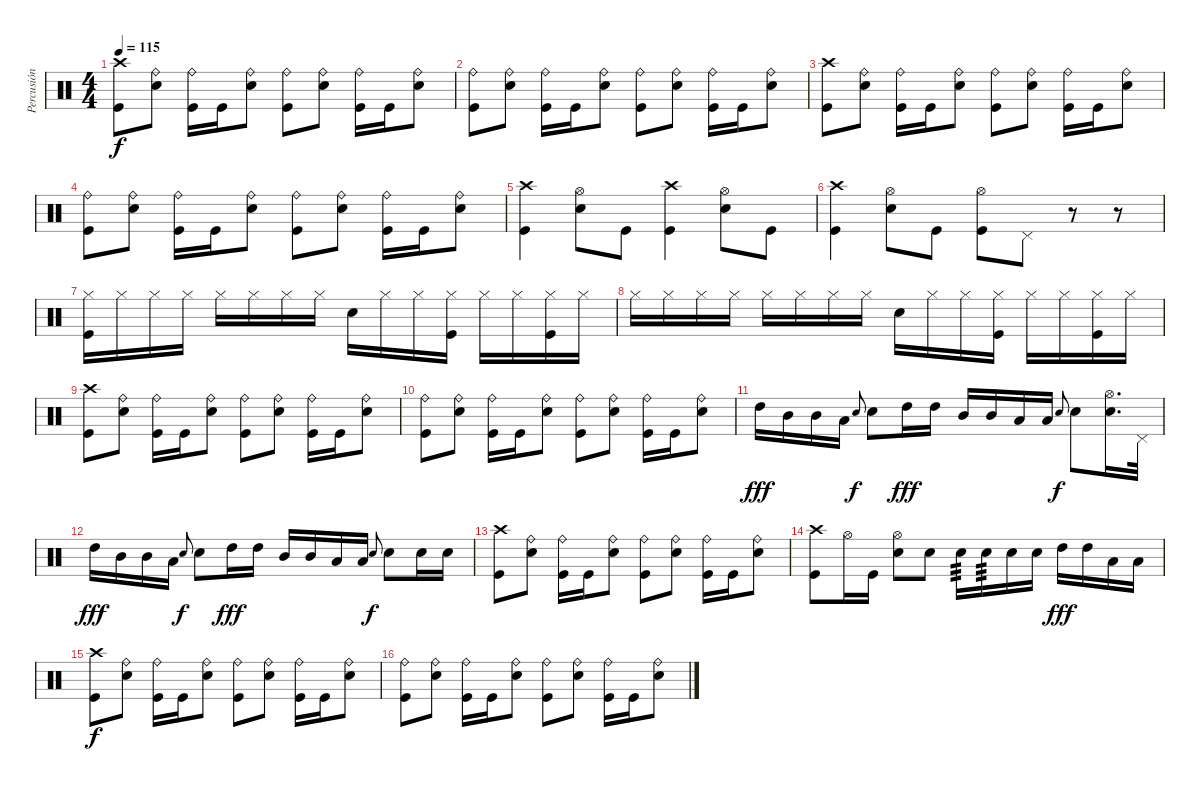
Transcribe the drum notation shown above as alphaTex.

\track ("Percusión" "Percusión") {instrument percussion}
\staff {score}
\articulation defaults
\ts (4 4)
\tempo 115
\clef neutral
\ks c
("Crash high (hit)" "Kick (hit)").8{dy f} ("Electric Snare (hit)" "Ride (bell)").8 ("Ride (bell)" "Kick (hit)").16 "Kick (hit)".16 ("Electric Snare (hit)" "Ride (bell)").8 ("Ride (bell)" "Kick (hit)").8 ("Electric Snare (hit)" "Ride (bell)").8 ("Ride (bell)" "Kick (hit)").16 "Kick (hit)".16 ("Electric Snare (hit)" "Ride (bell)").8 |
("Ride (bell)" "Kick (hit)").8 ("Electric Snare (hit)" "Ride (bell)").8 ("Ride (bell)" "Kick (hit)").16 "Kick (hit)".16 ("Electric Snare (hit)" "Ride (bell)").8 ("Ride (bell)" "Kick (hit)").8 ("Electric Snare (hit)" "Ride (bell)").8 ("Ride (bell)" "Kick (hit)").16 "Kick (hit)".16 ("Electric Snare (hit)" "Ride (bell)").8 |
("Crash high (hit)" "Kick (hit)").8 ("Electric Snare (hit)" "Ride (bell)").8 ("Ride (bell)" "Kick (hit)").16 "Kick (hit)".16 ("Electric Snare (hit)" "Ride (bell)").8 ("Ride (bell)" "Kick (hit)").8 ("Electric Snare (hit)" "Ride (bell)").8 ("Ride (bell)" "Kick (hit)").16 "Kick (hit)".16 ("Electric Snare (hit)" "Ride (bell)").8 |
("Ride (bell)" "Kick (hit)").8 ("Electric Snare (hit)" "Ride (bell)").8 ("Ride (bell)" "Kick (hit)").16 "Kick (hit)".16 ("Electric Snare (hit)" "Ride (bell)").8 ("Ride (bell)" "Kick (hit)").8 ("Electric Snare (hit)" "Ride (bell)").8 ("Ride (bell)" "Kick (hit)").16 "Kick (hit)".16 ("Electric Snare (hit)" "Ride (bell)").8 |
("Crash high (hit)" "Kick (hit)").4 ("Electric Snare (hit)" "Hi-Hat (open)").8 "Kick (hit)".8 ("Crash high (hit)" "Kick (hit)").4 ("Electric Snare (hit)" "Hi-Hat (open)").8 "Kick (hit)".8 |
("Crash high (hit)" "Kick (hit)").4 ("Electric Snare (hit)" "Hi-Hat (open)").8 "Kick (hit)".8 ("Hi-Hat (open)" "Kick (hit)").8 "Pedal Hi-Hat (hit)".8 r.8 r.8 |
("Hi-Hat (closed)" "Kick (hit)").16 "Hi-Hat (closed)".16 "Hi-Hat (closed)".16 "Hi-Hat (closed)".16 "Hi-Hat (closed)".16 "Hi-Hat (closed)".16 "Hi-Hat (closed)".16 "Hi-Hat (closed)".16 "Electric Snare (hit)".16 "Hi-Hat (closed)".16 "Hi-Hat (closed)".16 ("Hi-Hat (closed)" "Kick (hit)").16 "Hi-Hat (closed)".16 "Hi-Hat (closed)".16 ("Hi-Hat (closed)" "Kick (hit)").16 "Hi-Hat (closed)".16 |
"Hi-Hat (closed)".16 "Hi-Hat (closed)".16 "Hi-Hat (closed)".16 "Hi-Hat (closed)".16 "Hi-Hat (closed)".16 "Hi-Hat (closed)".16 "Hi-Hat (closed)".16 "Hi-Hat (closed)".16 "Electric Snare (hit)".16 "Hi-Hat (closed)".16 "Hi-Hat (closed)".16 ("Hi-Hat (closed)" "Kick (hit)").16 "Hi-Hat (closed)".16 "Hi-Hat (closed)".16 ("Hi-Hat (closed)" "Kick (hit)").16 "Hi-Hat (closed)".16 |
("Crash high (hit)" "Kick (hit)").8 ("Electric Snare (hit)" "Ride (bell)").8 ("Ride (bell)" "Kick (hit)").16 "Kick (hit)".16 ("Electric Snare (hit)" "Ride (bell)").8 ("Ride (bell)" "Kick (hit)").8 ("Electric Snare (hit)" "Ride (bell)").8 ("Ride (bell)" "Kick (hit)").16 "Kick (hit)".16 ("Electric Snare (hit)" "Ride (bell)").8 |
("Ride (bell)" "Kick (hit)").8 ("Electric Snare (hit)" "Ride (bell)").8 ("Ride (bell)" "Kick (hit)").16 "Kick (hit)".16 ("Electric Snare (hit)" "Ride (bell)").8 ("Ride (bell)" "Kick (hit)").8 ("Electric Snare (hit)" "Ride (bell)").8 ("Ride (bell)" "Kick (hit)").16 "Kick (hit)".16 ("Electric Snare (hit)" "Ride (bell)").8 |
"High Tom (hit)".16{dy fff} "Mid Tom (hit)".16 "Mid Tom (hit)".16 "Low Tom (hit)".16 "Electric Snare (hit)".8{gr onbeat dy f} "Electric Snare (hit)".8 "High Tom (hit)".16{dy fff} "High Tom (hit)".16 "Mid Tom (hit)".16 "Mid Tom (hit)".16 "Low Tom (hit)".16 "Low Tom (hit)".16 "Electric Snare (hit)".8{gr onbeat dy f} "Electric Snare (hit)".8 ("Electric Snare (hit)" "Hi-Hat (open)").16{d} "Pedal Hi-Hat (hit)".32 |
"High Tom (hit)".16{dy fff} "Mid Tom (hit)".16 "Mid Tom (hit)".16 "Low Tom (hit)".16 "Electric Snare (hit)".8{gr onbeat dy f} "Electric Snare (hit)".8 "High Tom (hit)".16{dy fff} "High Tom (hit)".16 "Mid Tom (hit)".16 "Mid Tom (hit)".16 "Low Tom (hit)".16 "Low Tom (hit)".16 "Electric Snare (hit)".8{gr onbeat dy f} "Electric Snare (hit)".8 "Electric Snare (hit)".16 "Electric Snare (hit)".16 |
("Crash high (hit)" "Kick (hit)").8 ("Electric Snare (hit)" "Ride (bell)").8 ("Ride (bell)" "Kick (hit)").16 "Kick (hit)".16 ("Electric Snare (hit)" "Ride (bell)").8 ("Ride (bell)" "Kick (hit)").8 ("Electric Snare (hit)" "Ride (bell)").8 ("Ride (bell)" "Kick (hit)").16 "Kick (hit)".16 ("Electric Snare (hit)" "Ride (bell)").8 |
("Crash high (hit)" "Kick (hit)").8 "Hi-Hat (open)".16 "Kick (hit)".16 ("Electric Snare (hit)" "Hi-Hat (open)").8 "Electric Snare (hit)".8 "Electric Snare (hit)".16{tp 3} "Electric Snare (hit)".16{tp 3} "Electric Snare (hit)".16 "Electric Snare (hit)".16 "High Tom (hit)".16{dy fff} "High Tom (hit)".16 "Low Tom (hit)".16 "Low Tom (hit)".16 |
("Crash high (hit)" "Kick (hit)").8{dy f} ("Electric Snare (hit)" "Ride (bell)").8 ("Ride (bell)" "Kick (hit)").16 "Kick (hit)".16 ("Electric Snare (hit)" "Ride (bell)").8 ("Ride (bell)" "Kick (hit)").8 ("Electric Snare (hit)" "Ride (bell)").8 ("Ride (bell)" "Kick (hit)").16 "Kick (hit)".16 ("Electric Snare (hit)" "Ride (bell)").8 |
("Ride (bell)" "Kick (hit)").8 ("Electric Snare (hit)" "Ride (bell)").8 ("Ride (bell)" "Kick (hit)").16 "Kick (hit)".16 ("Electric Snare (hit)" "Ride (bell)").8 ("Ride (bell)" "Kick (hit)").8 ("Electric Snare (hit)" "Ride (bell)").8 ("Ride (bell)" "Kick (hit)").16 "Kick (hit)".16 ("Electric Snare (hit)" "Ride (bell)").8
